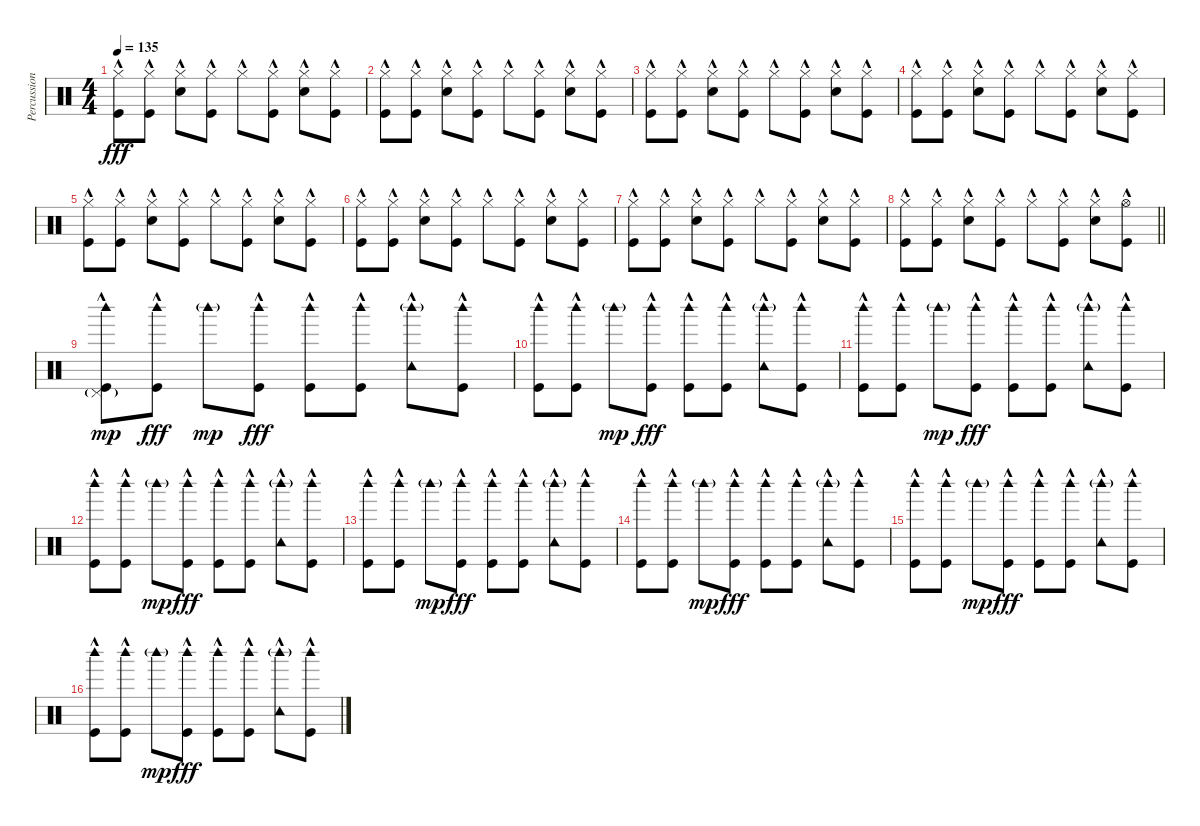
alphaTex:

\track ("Percussions" "Percussion") {instrument percussion}
\staff {score}
\articulation defaults
\ts (4 4)
\tempo 135
\clef neutral
\ks c
("Hi-Hat (closed)"{hac} "Kick (hit)"{hac}).8{dy fff} ("Hi-Hat (closed)"{hac} "Kick (hit)"{hac}).8 ("Hi-Hat (closed)"{hac} "Electric Snare (hit)"{hac}).8 ("Hi-Hat (closed)"{hac} "Kick (hit)"{hac}).8 "Hi-Hat (closed)"{hac}.8 ("Hi-Hat (closed)"{hac} "Kick (hit)"{hac}).8 ("Hi-Hat (closed)"{hac} "Electric Snare (hit)"{hac}).8 ("Hi-Hat (closed)"{hac} "Kick (hit)"{hac}).8 |
("Hi-Hat (closed)"{hac} "Kick (hit)"{hac}).8 ("Hi-Hat (closed)"{hac} "Kick (hit)"{hac}).8 ("Hi-Hat (closed)"{hac} "Electric Snare (hit)"{hac}).8 ("Hi-Hat (closed)"{hac} "Kick (hit)"{hac}).8 "Hi-Hat (closed)"{hac}.8 ("Hi-Hat (closed)"{hac} "Kick (hit)"{hac}).8 ("Hi-Hat (closed)"{hac} "Electric Snare (hit)"{hac}).8 ("Hi-Hat (closed)"{hac} "Kick (hit)"{hac}).8 |
("Hi-Hat (closed)"{hac} "Kick (hit)"{hac}).8 ("Hi-Hat (closed)"{hac} "Kick (hit)"{hac}).8 ("Hi-Hat (closed)"{hac} "Electric Snare (hit)"{hac}).8 ("Hi-Hat (closed)"{hac} "Kick (hit)"{hac}).8 "Hi-Hat (closed)"{hac}.8 ("Hi-Hat (closed)"{hac} "Kick (hit)"{hac}).8 ("Hi-Hat (closed)"{hac} "Electric Snare (hit)"{hac}).8 ("Hi-Hat (closed)"{hac} "Kick (hit)"{hac}).8 |
("Hi-Hat (closed)"{hac} "Kick (hit)"{hac}).8 ("Hi-Hat (closed)"{hac} "Kick (hit)"{hac}).8 ("Hi-Hat (closed)"{hac} "Electric Snare (hit)"{hac}).8 ("Hi-Hat (closed)"{hac} "Kick (hit)"{hac}).8 "Hi-Hat (closed)"{hac}.8 ("Hi-Hat (closed)"{hac} "Kick (hit)"{hac}).8 ("Hi-Hat (closed)"{hac} "Electric Snare (hit)"{hac}).8 ("Hi-Hat (closed)"{hac} "Kick (hit)"{hac}).8 |
("Hi-Hat (closed)"{hac} "Kick (hit)"{hac}).8 ("Hi-Hat (closed)"{hac} "Kick (hit)"{hac}).8 ("Hi-Hat (closed)"{hac} "Electric Snare (hit)"{hac}).8 ("Hi-Hat (closed)"{hac} "Kick (hit)"{hac}).8 "Hi-Hat (closed)"{hac}.8 ("Hi-Hat (closed)"{hac} "Kick (hit)"{hac}).8 ("Hi-Hat (closed)"{hac} "Electric Snare (hit)"{hac}).8 ("Hi-Hat (closed)"{hac} "Kick (hit)"{hac}).8 |
("Hi-Hat (closed)"{hac} "Kick (hit)"{hac}).8 ("Hi-Hat (closed)"{hac} "Kick (hit)"{hac}).8 ("Hi-Hat (closed)"{hac} "Electric Snare (hit)"{hac}).8 ("Hi-Hat (closed)"{hac} "Kick (hit)"{hac}).8 "Hi-Hat (closed)"{hac}.8 ("Hi-Hat (closed)"{hac} "Kick (hit)"{hac}).8 ("Hi-Hat (closed)"{hac} "Electric Snare (hit)"{hac}).8 ("Hi-Hat (closed)"{hac} "Kick (hit)"{hac}).8 |
("Hi-Hat (closed)"{hac} "Kick (hit)"{hac}).8 ("Hi-Hat (closed)"{hac} "Kick (hit)"{hac}).8 ("Hi-Hat (closed)"{hac} "Electric Snare (hit)"{hac}).8 ("Hi-Hat (closed)"{hac} "Kick (hit)"{hac}).8 "Hi-Hat (closed)"{hac}.8 ("Hi-Hat (closed)"{hac} "Kick (hit)"{hac}).8 ("Hi-Hat (closed)"{hac} "Electric Snare (hit)"{hac}).8 ("Hi-Hat (closed)"{hac} "Kick (hit)"{hac}).8 |
\barLineRight lightlight
("Hi-Hat (closed)"{hac} "Kick (hit)"{hac}).8 ("Hi-Hat (closed)"{hac} "Kick (hit)"{hac}).8 ("Hi-Hat (closed)"{hac} "Electric Snare (hit)"{hac}).8 ("Hi-Hat (closed)"{hac} "Kick (hit)"{hac}).8 "Hi-Hat (closed)"{hac}.8 ("Hi-Hat (closed)"{hac} "Kick (hit)"{hac}).8 ("Hi-Hat (closed)"{hac} "Electric Snare (hit)"{hac}).8 ("Hi-Hat (open)"{hac} "Kick (hit)"{hac}).8 |
("Woodblock high (hit)" "Kick (hit)"{hac} "Pedal Hi-Hat (hit)"{g}).8{dy mp} ("Woodblock high (hit)" "Kick (hit)"{hac}).8{dy fff} "Woodblock high (hit)"{g}.8{dy mp} ("Woodblock high (hit)" "Kick (hit)"{hac}).8{dy fff} ("Woodblock high (hit)" "Kick (hit)"{hac}).8 ("Woodblock high (hit)" "Kick (hit)"{hac}).8 ("Woodblock high (hit)"{g} "Tambourine (hit)"{hac}).8 ("Woodblock high (hit)" "Kick (hit)"{hac}).8 |
("Woodblock high (hit)" "Kick (hit)"{hac}).8 ("Woodblock high (hit)" "Kick (hit)"{hac}).8 "Woodblock high (hit)"{g}.8{dy mp} ("Woodblock high (hit)" "Kick (hit)"{hac}).8{dy fff} ("Woodblock high (hit)" "Kick (hit)"{hac}).8 ("Woodblock high (hit)" "Kick (hit)"{hac}).8 ("Woodblock high (hit)"{g} "Tambourine (hit)"{hac}).8 ("Woodblock high (hit)" "Kick (hit)"{hac}).8 |
("Woodblock high (hit)" "Kick (hit)"{hac}).8 ("Woodblock high (hit)" "Kick (hit)"{hac}).8 "Woodblock high (hit)"{g}.8{dy mp} ("Woodblock high (hit)" "Kick (hit)"{hac}).8{dy fff} ("Woodblock high (hit)" "Kick (hit)"{hac}).8 ("Woodblock high (hit)" "Kick (hit)"{hac}).8 ("Woodblock high (hit)"{g} "Tambourine (hit)"{hac}).8 ("Woodblock high (hit)" "Kick (hit)"{hac}).8 |
("Woodblock high (hit)" "Kick (hit)"{hac}).8 ("Woodblock high (hit)" "Kick (hit)"{hac}).8 "Woodblock high (hit)"{g}.8{dy mp} ("Woodblock high (hit)" "Kick (hit)"{hac}).8{dy fff} ("Woodblock high (hit)" "Kick (hit)"{hac}).8 ("Woodblock high (hit)" "Kick (hit)"{hac}).8 ("Woodblock high (hit)"{g} "Tambourine (hit)"{hac}).8 ("Woodblock high (hit)" "Kick (hit)"{hac}).8 |
("Woodblock high (hit)" "Kick (hit)"{hac}).8 ("Woodblock high (hit)" "Kick (hit)"{hac}).8 "Woodblock high (hit)"{g}.8{dy mp} ("Woodblock high (hit)" "Kick (hit)"{hac}).8{dy fff} ("Woodblock high (hit)" "Kick (hit)"{hac}).8 ("Woodblock high (hit)" "Kick (hit)"{hac}).8 ("Woodblock high (hit)"{g} "Tambourine (hit)"{hac}).8 ("Woodblock high (hit)" "Kick (hit)"{hac}).8 |
("Woodblock high (hit)" "Kick (hit)"{hac}).8 ("Woodblock high (hit)" "Kick (hit)"{hac}).8 "Woodblock high (hit)"{g}.8{dy mp} ("Woodblock high (hit)" "Kick (hit)"{hac}).8{dy fff} ("Woodblock high (hit)" "Kick (hit)"{hac}).8 ("Woodblock high (hit)" "Kick (hit)"{hac}).8 ("Woodblock high (hit)"{g} "Tambourine (hit)"{hac}).8 ("Woodblock high (hit)" "Kick (hit)"{hac}).8 |
("Woodblock high (hit)" "Kick (hit)"{hac}).8 ("Woodblock high (hit)" "Kick (hit)"{hac}).8 "Woodblock high (hit)"{g}.8{dy mp} ("Woodblock high (hit)" "Kick (hit)"{hac}).8{dy fff} ("Woodblock high (hit)" "Kick (hit)"{hac}).8 ("Woodblock high (hit)" "Kick (hit)"{hac}).8 ("Woodblock high (hit)"{g} "Tambourine (hit)"{hac}).8 ("Woodblock high (hit)" "Kick (hit)"{hac}).8 |
("Woodblock high (hit)" "Kick (hit)"{hac}).8 ("Woodblock high (hit)" "Kick (hit)"{hac}).8 "Woodblock high (hit)"{g}.8{dy mp} ("Woodblock high (hit)" "Kick (hit)"{hac}).8{dy fff} ("Woodblock high (hit)" "Kick (hit)"{hac}).8 ("Woodblock high (hit)" "Kick (hit)"{hac}).8 ("Woodblock high (hit)"{g} "Tambourine (hit)"{hac}).8 ("Woodblock high (hit)" "Kick (hit)"{hac}).8
